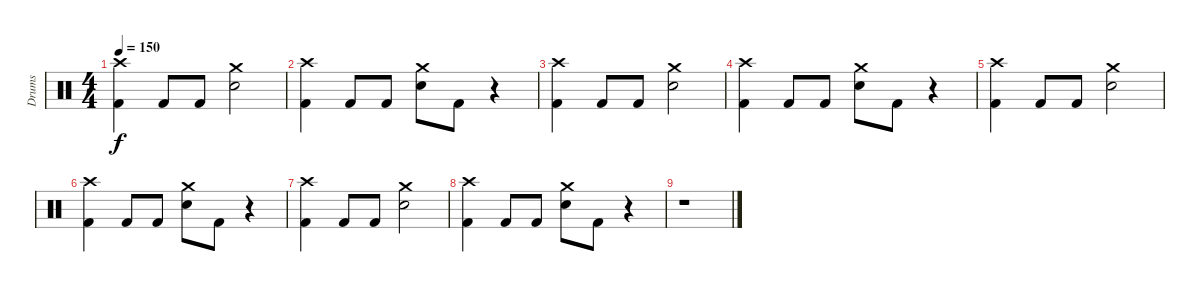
\track ("Drums" "Drums") {instrument percussion}
\staff {score}
\articulation defaults
\ts (4 4)
\tempo 150
\clef neutral
\ks c
("Kick (hit) 2" "Crash high (hit)").4{dy f} "Kick (hit) 2".8 "Kick (hit) 2".8 ("Electric Snare (hit)" "Crash medium (hit)").2 |
("Kick (hit) 2" "Crash high (hit)").4 "Kick (hit) 2".8 "Kick (hit) 2".8 ("Electric Snare (hit)" "Crash medium (hit)").8 "Kick (hit) 2".8 r.4 |
("Kick (hit) 2" "Crash high (hit)").4 "Kick (hit) 2".8 "Kick (hit) 2".8 ("Electric Snare (hit)" "Crash medium (hit)").2 |
("Kick (hit) 2" "Crash high (hit)").4 "Kick (hit) 2".8 "Kick (hit) 2".8 ("Electric Snare (hit)" "Crash medium (hit)").8 "Kick (hit) 2".8 r.4 |
("Kick (hit) 2" "Crash high (hit)").4 "Kick (hit) 2".8 "Kick (hit) 2".8 ("Electric Snare (hit)" "Crash medium (hit)").2 |
("Kick (hit) 2" "Crash high (hit)").4 "Kick (hit) 2".8 "Kick (hit) 2".8 ("Electric Snare (hit)" "Crash medium (hit)").8 "Kick (hit) 2".8 r.4 |
("Kick (hit) 2" "Crash high (hit)").4 "Kick (hit) 2".8 "Kick (hit) 2".8 ("Electric Snare (hit)" "Crash medium (hit)").2 |
("Kick (hit) 2" "Crash high (hit)").4 "Kick (hit) 2".8 "Kick (hit) 2".8 ("Electric Snare (hit)" "Crash medium (hit)").8 "Kick (hit) 2".8 r.4 |
r.1
